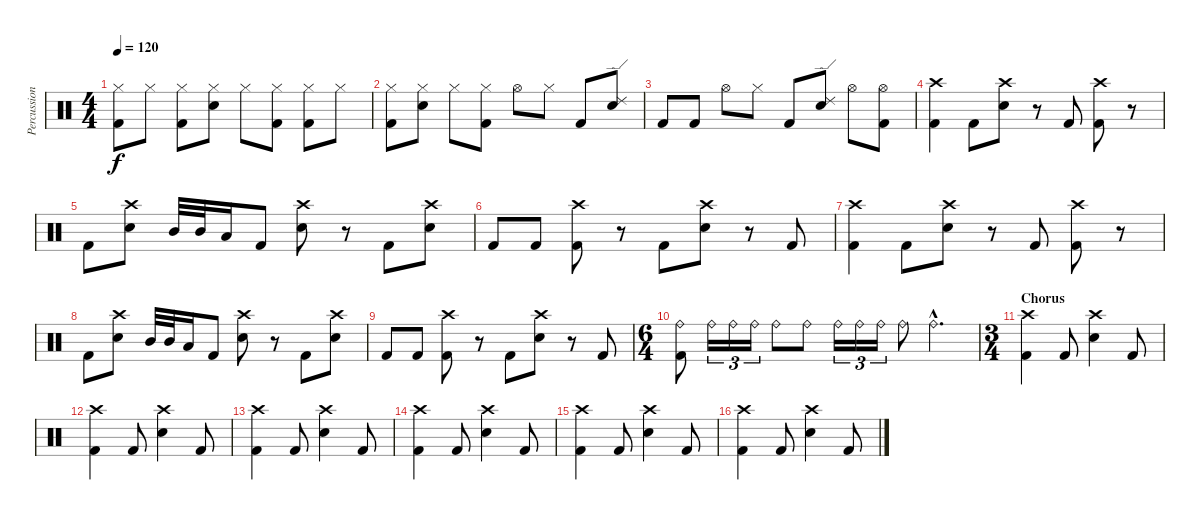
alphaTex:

\track ("Percussion" "Percussion") {instrument percussion}
\staff {score}
\articulation defaults
\ts (4 4)
\tempo 120
\clef neutral
\ks c
("Hi-Hat (closed)" "Kick (hit) 2").8{dy f} "Hi-Hat (closed)".8 ("Hi-Hat (closed)" "Kick (hit) 2").8 ("Hi-Hat (closed)" "Snare (hit) 2").8 "Hi-Hat (closed)".8 ("Hi-Hat (closed)" "Kick (hit) 2").8 ("Hi-Hat (closed)" "Kick (hit) 2").8 "Hi-Hat (closed)".8 |
("Hi-Hat (closed)" "Kick (hit) 2").8 ("Hi-Hat (closed)" "Snare (hit) 2").8 "Hi-Hat (closed)".8 ("Hi-Hat (closed)" "Kick (hit) 2").8 "Hi-Hat (open)".8 "Hi-Hat (closed)".8 "Kick (hit) 2".8 ("Ride (edge) 2" "Snare (hit) 2").8 |
"Kick (hit) 2".8 "Kick (hit) 2".8 "Hi-Hat (open)".8 "Hi-Hat (closed)".8 "Kick (hit) 2".8 ("Ride (edge) 2" "Snare (hit) 2").8 "Hi-Hat (open)".8 ("Hi-Hat (open)" "Kick (hit) 2").8 |
("Crash high (hit)" "Kick (hit) 2").4 "Kick (hit) 2".8 ("Crash high (hit)" "Snare (hit) 2").8 r.8 "Kick (hit) 2".8 ("Crash high (hit)" "Kick (hit) 2").8 r.8 |
"Kick (hit) 2".8 ("Crash high (hit)" "Snare (hit) 2").8 "Mid Tom (hit)".32 "Mid Tom (hit)".32 "Low Tom (hit)".16 "Kick (hit) 2".8 ("Crash high (hit)" "Snare (hit) 2").8 r.8 "Kick (hit) 2".8 ("Crash high (hit)" "Snare (hit) 2").8 |
"Kick (hit) 2".8 "Kick (hit) 2".8 ("Crash high (hit)" "Kick (hit) 2").8 r.8 "Kick (hit) 2".8 ("Crash high (hit)" "Snare (hit) 2").8 r.8 "Kick (hit) 2".8 |
("Crash high (hit)" "Kick (hit) 2").4 "Kick (hit) 2".8 ("Crash high (hit)" "Snare (hit) 2").8 r.8 "Kick (hit) 2".8 ("Crash high (hit)" "Kick (hit) 2").8 r.8 |
"Kick (hit) 2".8 ("Crash high (hit)" "Snare (hit) 2").8 "Mid Tom (hit)".32 "Mid Tom (hit)".32 "Low Tom (hit)".16 "Kick (hit) 2".8 ("Crash high (hit)" "Snare (hit) 2").8 r.8 "Kick (hit) 2".8 ("Crash high (hit)" "Snare (hit) 2").8 |
"Kick (hit) 2".8 "Kick (hit) 2".8 ("Crash high (hit)" "Kick (hit) 2").8 r.8 "Kick (hit) 2".8 ("Crash high (hit)" "Snare (hit) 2").8 r.8 "Kick (hit) 2".8 |
\ts (6 4)
("Ride (bell)" "Kick (hit) 2").8 "Ride (bell)".16{tu (3 2)} "Ride (bell)".16{tu (3 2)} "Ride (bell)".16{tu (3 2)} "Ride (bell)".8 "Ride (bell)".8 "Ride (bell)".16{tu (3 2)} "Ride (bell)".16{tu (3 2)} "Ride (bell)".16{tu (3 2)} "Ride (bell)".8 "Ride (bell)"{hac}.2{d} |
\ts (3 4)
\section ("" "Chorus")
("Crash high (hit)" "Kick (hit) 2").4 "Kick (hit) 2".8 ("Crash high (hit)" "Snare (hit) 2").4 "Kick (hit) 2".8 |
("Crash high (hit)" "Kick (hit) 2").4 "Kick (hit) 2".8 ("Crash high (hit)" "Snare (hit) 2").4 "Kick (hit) 2".8 |
("Crash high (hit)" "Kick (hit) 2").4 "Kick (hit) 2".8 ("Crash high (hit)" "Snare (hit) 2").4 "Kick (hit) 2".8 |
("Crash high (hit)" "Kick (hit) 2").4 "Kick (hit) 2".8 ("Crash high (hit)" "Snare (hit) 2").4 "Kick (hit) 2".8 |
("Crash high (hit)" "Kick (hit) 2").4 "Kick (hit) 2".8 ("Crash high (hit)" "Snare (hit) 2").4 "Kick (hit) 2".8 |
("Crash high (hit)" "Kick (hit) 2").4 "Kick (hit) 2".8 ("Crash high (hit)" "Snare (hit) 2").4 "Kick (hit) 2".8
